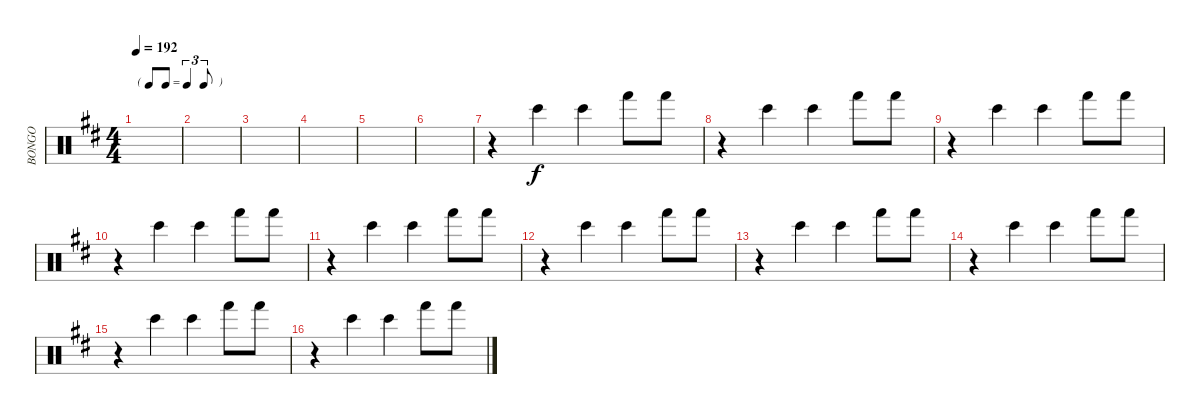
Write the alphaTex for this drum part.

\track ("BONGO" "BONGO") {instrument percussion}
\staff {score}
\articulation defaults
\ts (4 4)
\tf triplet8th
\tempo 192
\clef neutral
\ks d
|
|
|
|
|
|
r.4 "Bongo High (hit)".4 "Bongo High (hit)".4 "Hand (hit)".8 "Hand (hit)".8 |
r.4 "Bongo High (hit)".4 "Bongo High (hit)".4 "Hand (hit)".8 "Hand (hit)".8 |
r.4 "Bongo High (hit)".4 "Bongo High (hit)".4 "Hand (hit)".8 "Hand (hit)".8 |
r.4 "Bongo High (hit)".4 "Bongo High (hit)".4 "Hand (hit)".8 "Hand (hit)".8 |
r.4 "Bongo High (hit)".4 "Bongo High (hit)".4 "Hand (hit)".8 "Hand (hit)".8 |
r.4 "Bongo High (hit)".4 "Bongo High (hit)".4 "Hand (hit)".8 "Hand (hit)".8 |
r.4 "Bongo High (hit)".4 "Bongo High (hit)".4 "Hand (hit)".8 "Hand (hit)".8 |
r.4 "Bongo High (hit)".4 "Bongo High (hit)".4 "Hand (hit)".8 "Hand (hit)".8 |
r.4 "Bongo High (hit)".4 "Bongo High (hit)".4 "Hand (hit)".8 "Hand (hit)".8 |
r.4 "Bongo High (hit)".4 "Bongo High (hit)".4 "Hand (hit)".8 "Hand (hit)".8
